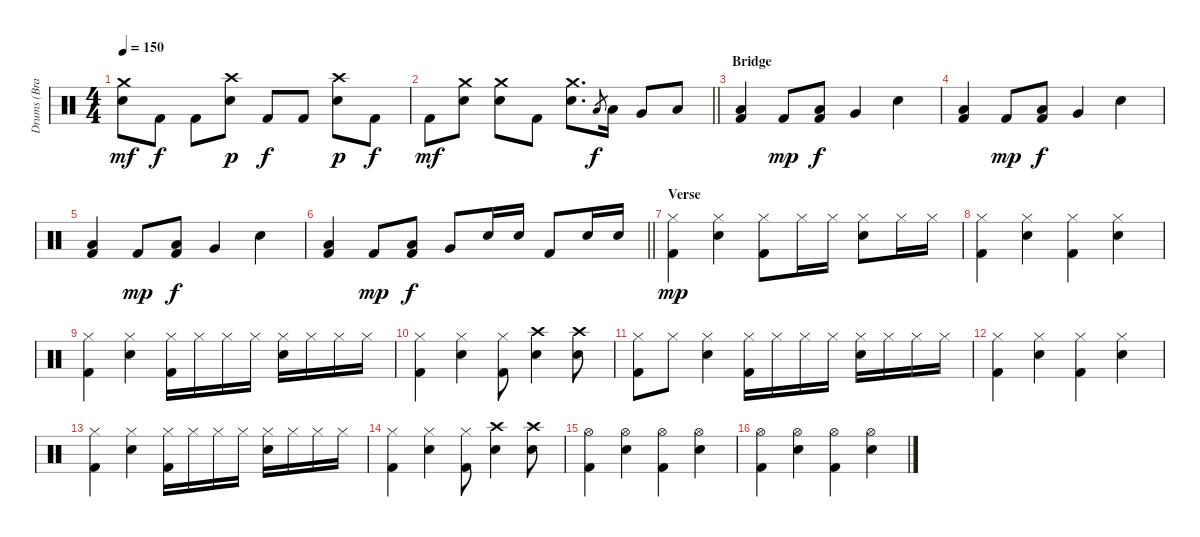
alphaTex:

\track ("Drums (Brandon Saller)" "Drums (Bra") {instrument percussion}
\staff {score}
\articulation defaults
\ts (4 4)
\tempo 150
\clef neutral
\ks c
("Crash medium (hit)" "Electric Snare (hit)").8{dy mf} "Kick (hit) 2".8{dy f} "Kick (hit) 2".8 ("Crash high (hit)" "Electric Snare (hit)").8{dy p} "Kick (hit) 2".8{dy f} "Kick (hit) 2".8 ("Crash high (hit)" "Electric Snare (hit)").8{dy p} "Kick (hit) 2".8{dy f} |
\barLineRight lightlight "Kick (hit) 2".8{dy mf}
("Crash medium (hit)" "Electric Snare (hit)").8 ("Crash medium (hit)" "Electric Snare (hit)").8 "Kick (hit) 2".8 ("Crash medium (hit)" "Electric Snare (hit)").8{d} "Low Tom (hit)".8{gr dy f} "Low Tom (hit)".16 "Very Low Tom (hit)".8 "Low Floor Tom (hit)".8 |
\section ("" "Bridge")
("Low Tom (hit)" "Kick (hit) 2").4{bu 120} "Kick (hit) 2".8{dy mp} ("Low Tom (hit)" "Kick (hit) 2").8{dy f} "Very Low Tom (hit)".4 "Snare (hit) 2".4 |
("Low Tom (hit)" "Kick (hit) 2").4{bu 120} "Kick (hit) 2".8{dy mp} ("Low Tom (hit)" "Kick (hit) 2").8{dy f} "Very Low Tom (hit)".4 "Snare (hit) 2".4 |
("Low Tom (hit)" "Kick (hit) 2").4{bu 120} "Kick (hit) 2".8{dy mp} ("Low Tom (hit)" "Kick (hit) 2").8{dy f} "Very Low Tom (hit)".4 "Snare (hit) 2".4 |
\barLineRight lightlight
("Low Tom (hit)" "Kick (hit) 2").4{bu 120} "Kick (hit) 2".8{dy mp} ("Low Tom (hit)" "Kick (hit) 2").8{dy f} "Very Low Tom (hit)".8 "Snare (hit) 2".16 "Snare (hit) 2".16 "Kick (hit) 2".8 "Snare (hit) 2".16 "Snare (hit) 2".16 |
\section ("" "Verse")
("Hi-Hat (closed)" "Kick (hit) 2").4{dy mp} ("Hi-Hat (closed)" "Electric Snare (hit)").4 ("Hi-Hat (closed)" "Kick (hit) 2").8 "Hi-Hat (closed)".16 "Hi-Hat (closed)".16 ("Hi-Hat (closed)" "Electric Snare (hit)").8 "Hi-Hat (closed)".16 "Hi-Hat (closed)".16 |
("Hi-Hat (closed)" "Kick (hit) 2").4 ("Hi-Hat (closed)" "Electric Snare (hit)").4 ("Hi-Hat (closed)" "Kick (hit) 2").4 ("Hi-Hat (closed)" "Electric Snare (hit)").4 |
("Hi-Hat (closed)" "Kick (hit) 2").4 ("Hi-Hat (closed)" "Electric Snare (hit)").4 ("Hi-Hat (closed)" "Kick (hit) 2").16 "Hi-Hat (closed)".16 "Hi-Hat (closed)".16 "Hi-Hat (closed)".16 ("Hi-Hat (closed)" "Electric Snare (hit)").16 "Hi-Hat (closed)".16 "Hi-Hat (closed)".16 "Hi-Hat (closed)".16 |
("Hi-Hat (closed)" "Kick (hit) 2").4 ("Hi-Hat (closed)" "Electric Snare (hit)").4 ("Hi-Hat (closed)" "Kick (hit) 2").8 ("Crash high (hit)" "Electric Snare (hit)").4 ("Crash high (hit)" "Electric Snare (hit)").8 |
("Hi-Hat (closed)" "Kick (hit) 2").8 "Hi-Hat (closed)".8 ("Hi-Hat (closed)" "Electric Snare (hit)").4 ("Hi-Hat (closed)" "Kick (hit) 2").16 "Hi-Hat (closed)".16 "Hi-Hat (closed)".16 "Hi-Hat (closed)".16 ("Hi-Hat (closed)" "Electric Snare (hit)").16 "Hi-Hat (closed)".16 "Hi-Hat (closed)".16 "Hi-Hat (closed)".16 |
("Hi-Hat (closed)" "Kick (hit) 2").4 ("Hi-Hat (closed)" "Electric Snare (hit)").4 ("Hi-Hat (closed)" "Kick (hit) 2").4 ("Hi-Hat (closed)" "Electric Snare (hit)").4 |
("Hi-Hat (closed)" "Kick (hit) 2").4 ("Hi-Hat (closed)" "Electric Snare (hit)").4 ("Hi-Hat (closed)" "Kick (hit) 2").16 "Hi-Hat (closed)".16 "Hi-Hat (closed)".16 "Hi-Hat (closed)".16 ("Hi-Hat (closed)" "Electric Snare (hit)").16 "Hi-Hat (closed)".16 "Hi-Hat (closed)".16 "Hi-Hat (closed)".16 |
("Hi-Hat (closed)" "Kick (hit) 2").4 ("Hi-Hat (closed)" "Electric Snare (hit)").4 ("Hi-Hat (closed)" "Kick (hit) 2").8 ("Crash high (hit)" "Electric Snare (hit)").4 ("Crash high (hit)" "Electric Snare (hit)").8 |
("Hi-Hat (open)" "Kick (hit) 2").4 ("Hi-Hat (open)" "Electric Snare (hit)").4 ("Hi-Hat (open)" "Kick (hit) 2").4 ("Hi-Hat (open)" "Electric Snare (hit)").4 |
("Hi-Hat (open)" "Kick (hit) 2").4 ("Hi-Hat (open)" "Electric Snare (hit)").4 ("Hi-Hat (open)" "Kick (hit) 2").4 ("Hi-Hat (open)" "Electric Snare (hit)").4
